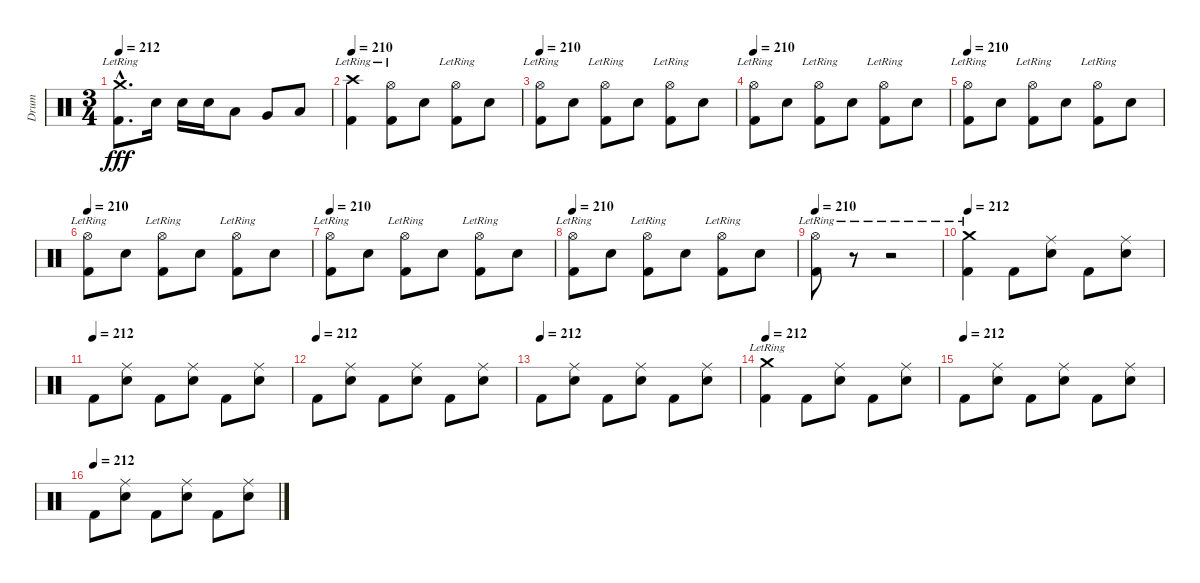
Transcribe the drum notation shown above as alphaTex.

\track ("Drum" "Drum") {instrument percussion}
\staff {score}
\articulation defaults
\ts (3 4)
\tempo 212
\clef neutral
\ks c
("Crash medium (hit)"{hac lr} "Kick (hit) 2"{hac}).8{d dy fff} "Electric Snare (hit)".16 "Electric Snare (hit)".16 "Electric Snare (hit)".16 "Low Tom (hit)".8 "Very Low Tom (hit)".8 "Low Floor Tom (hit)".8 |
\tempo 210
("Crash high (hit)"{lr} "Kick (hit) 2").4 ("Hi-Hat (open)"{lr} "Kick (hit) 2").8 "Electric Snare (hit)".8 ("Hi-Hat (open)"{lr} "Kick (hit) 2").8 "Electric Snare (hit)".8 |
\tempo 210
("Hi-Hat (open)"{lr} "Kick (hit) 2").8 "Electric Snare (hit)".8 ("Hi-Hat (open)"{lr} "Kick (hit) 2").8 "Electric Snare (hit)".8 ("Hi-Hat (open)"{lr} "Kick (hit) 2").8 "Electric Snare (hit)".8 |
\tempo 210
("Hi-Hat (open)"{lr} "Kick (hit) 2").8 "Electric Snare (hit)".8 ("Hi-Hat (open)"{lr} "Kick (hit) 2").8 "Electric Snare (hit)".8 ("Hi-Hat (open)"{lr} "Kick (hit) 2").8 "Electric Snare (hit)".8 |
\tempo 210
("Hi-Hat (open)"{lr} "Kick (hit) 2").8 "Electric Snare (hit)".8 ("Hi-Hat (open)"{lr} "Kick (hit) 2").8 "Electric Snare (hit)".8 ("Hi-Hat (open)"{lr} "Kick (hit) 2").8 "Electric Snare (hit)".8 |
\tempo 210
("Hi-Hat (open)"{lr} "Kick (hit) 2").8 "Electric Snare (hit)".8 ("Hi-Hat (open)"{lr} "Kick (hit) 2").8 "Electric Snare (hit)".8 ("Hi-Hat (open)"{lr} "Kick (hit) 2").8 "Electric Snare (hit)".8 |
\tempo 210
("Hi-Hat (open)"{lr} "Kick (hit) 2").8 "Electric Snare (hit)".8 ("Hi-Hat (open)"{lr} "Kick (hit) 2").8 "Electric Snare (hit)".8 ("Hi-Hat (open)"{lr} "Kick (hit) 2").8 "Electric Snare (hit)".8 |
\tempo 210
("Hi-Hat (open)"{lr} "Kick (hit) 2").8 "Electric Snare (hit)".8 ("Hi-Hat (open)"{lr} "Kick (hit) 2").8 "Electric Snare (hit)".8 ("Hi-Hat (open)"{lr} "Kick (hit) 2").8 "Electric Snare (hit)".8 |
\tempo 210
("Hi-Hat (open)"{lr} "Kick (hit) 2").8 r.8 r.2 |
\tempo 212
("Crash medium (hit)"{lr} "Kick (hit) 2").4 "Kick (hit) 2".8 ("Ride (middle)" "Electric Snare (hit)").8 "Kick (hit) 2".8 ("Ride (middle)" "Electric Snare (hit)").8 |
\tempo (212)
"Kick (hit) 2".8 ("Ride (middle)" "Electric Snare (hit)").8 "Kick (hit) 2".8 ("Ride (middle)" "Electric Snare (hit)").8 "Kick (hit) 2".8 ("Ride (middle)" "Electric Snare (hit)").8 |
\tempo (212)
"Kick (hit) 2".8 ("Ride (middle)" "Electric Snare (hit)").8 "Kick (hit) 2".8 ("Ride (middle)" "Electric Snare (hit)").8 "Kick (hit) 2".8 ("Ride (middle)" "Electric Snare (hit)").8 |
\tempo (212)
"Kick (hit) 2".8 ("Ride (middle)" "Electric Snare (hit)").8 "Kick (hit) 2".8 ("Ride (middle)" "Electric Snare (hit)").8 "Kick (hit) 2".8 ("Ride (middle)" "Electric Snare (hit)").8 |
\tempo 212
("Crash medium (hit)"{lr} "Kick (hit) 2").4 "Kick (hit) 2".8 ("Ride (middle)" "Electric Snare (hit)").8 "Kick (hit) 2".8 ("Ride (middle)" "Electric Snare (hit)").8 |
\tempo (212)
"Kick (hit) 2".8 ("Ride (middle)" "Electric Snare (hit)").8 "Kick (hit) 2".8 ("Ride (middle)" "Electric Snare (hit)").8 "Kick (hit) 2".8 ("Ride (middle)" "Electric Snare (hit)").8 |
\tempo (212)
"Kick (hit) 2".8 ("Ride (middle)" "Electric Snare (hit)").8 "Kick (hit) 2".8 ("Ride (middle)" "Electric Snare (hit)").8 "Kick (hit) 2".8 ("Ride (middle)" "Electric Snare (hit)").8
